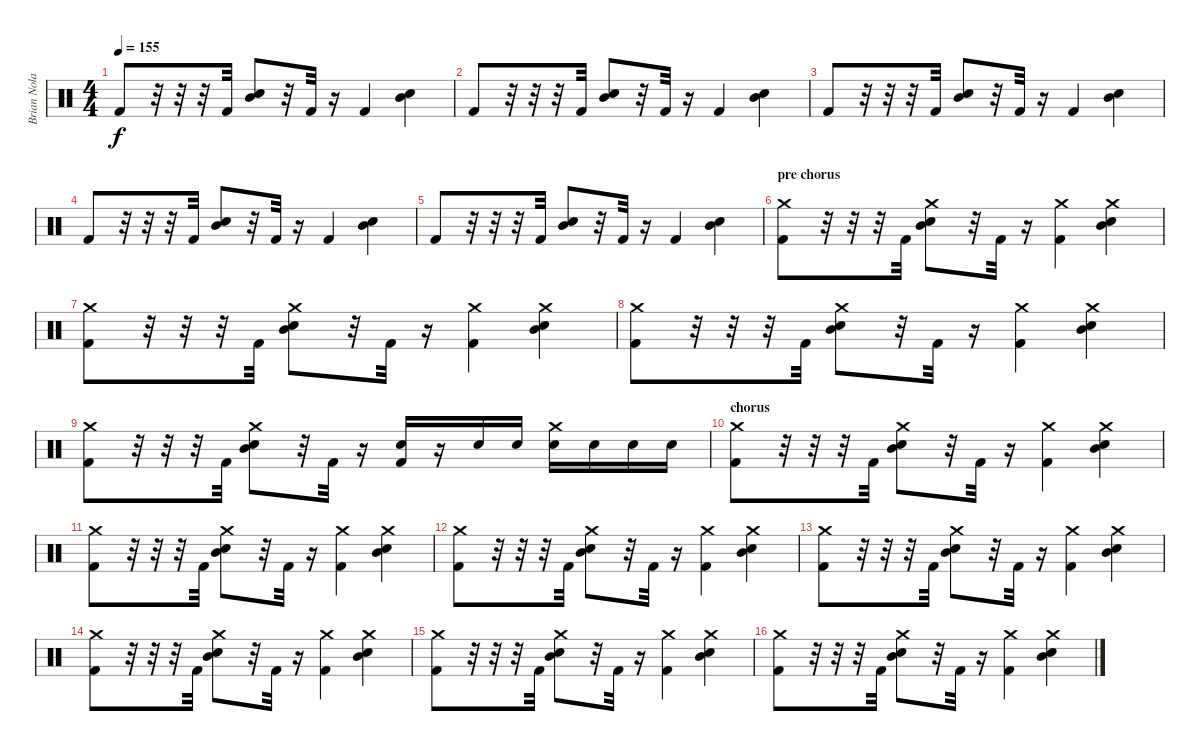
\track ("Brian Nolan" "Brian Nola") {instrument percussion}
\staff {score}
\articulation defaults
\ts (4 4)
\tempo 155
\clef neutral
\ks c "Kick (hit) 2".8{dy f}
r.32 r.32 r.32 "Kick (hit) 2".32 ("Snare (hit) 2" "Mid Tom (hit)").8 r.32 "Kick (hit) 2".32 r.16 "Kick (hit) 2".4 ("Snare (hit) 2" "Mid Tom (hit)").4 |
"Kick (hit) 2".8 r.32 r.32 r.32 "Kick (hit) 2".32 ("Snare (hit) 2" "Mid Tom (hit)").8 r.32 "Kick (hit) 2".32 r.16 "Kick (hit) 2".4 ("Snare (hit) 2" "Mid Tom (hit)").4 |
"Kick (hit) 2".8 r.32 r.32 r.32 "Kick (hit) 2".32 ("Snare (hit) 2" "Mid Tom (hit)").8 r.32 "Kick (hit) 2".32 r.16 "Kick (hit) 2".4 ("Snare (hit) 2" "Mid Tom (hit)").4 |
"Kick (hit) 2".8 r.32 r.32 r.32 "Kick (hit) 2".32 ("Snare (hit) 2" "Mid Tom (hit)").8 r.32 "Kick (hit) 2".32 r.16 "Kick (hit) 2".4 ("Snare (hit) 2" "Mid Tom (hit)").4 |
"Kick (hit) 2".8 r.32 r.32 r.32 "Kick (hit) 2".32 ("Snare (hit) 2" "Mid Tom (hit)").8 r.32 "Kick (hit) 2".32 r.16 "Kick (hit) 2".4 ("Snare (hit) 2" "Mid Tom (hit)").4 |
\section ("" "pre chorus")
("Crash medium (hit)" "Kick (hit) 2").8 r.32 r.32 r.32 "Kick (hit) 2".32 ("Snare (hit) 2" "Mid Tom (hit)" "Crash medium (hit)").8 r.32 "Kick (hit) 2".32 r.16 ("Crash medium (hit)" "Kick (hit) 2").4 ("Snare (hit) 2" "Mid Tom (hit)" "Crash medium (hit)").4 |
("Crash medium (hit)" "Kick (hit) 2").8 r.32 r.32 r.32 "Kick (hit) 2".32 ("Snare (hit) 2" "Mid Tom (hit)" "Crash medium (hit)").8 r.32 "Kick (hit) 2".32 r.16 ("Crash medium (hit)" "Kick (hit) 2").4 ("Snare (hit) 2" "Mid Tom (hit)" "Crash medium (hit)").4 |
("Crash medium (hit)" "Kick (hit) 2").8 r.32 r.32 r.32 "Kick (hit) 2".32 ("Snare (hit) 2" "Mid Tom (hit)" "Crash medium (hit)").8 r.32 "Kick (hit) 2".32 r.16 ("Crash medium (hit)" "Kick (hit) 2").4 ("Snare (hit) 2" "Mid Tom (hit)" "Crash medium (hit)").4 |
("Crash medium (hit)" "Kick (hit) 2").8 r.32 r.32 r.32 "Kick (hit) 2".32 ("Snare (hit) 2" "Mid Tom (hit)" "Crash medium (hit)").8 r.32 "Kick (hit) 2".32 r.16 ("Snare (hit) 2" "Kick (hit) 2").16 r.16 "Snare (hit) 2".16 "Snare (hit) 2".16 ("Snare (hit) 2" "Crash medium (hit)").16 "Snare (hit) 2".16 "Snare (hit) 2".16 "Snare (hit) 2".16 |
\section ("" "chorus")
("Crash medium (hit)" "Kick (hit) 2").8 r.32 r.32 r.32 "Kick (hit) 2".32 ("Snare (hit) 2" "Mid Tom (hit)" "Crash medium (hit)").8 r.32 "Kick (hit) 2".32 r.16 ("Crash medium (hit)" "Kick (hit) 2").4 ("Snare (hit) 2" "Mid Tom (hit)" "Crash medium (hit)").4 |
("Crash medium (hit)" "Kick (hit) 2").8 r.32 r.32 r.32 "Kick (hit) 2".32 ("Snare (hit) 2" "Mid Tom (hit)" "Crash medium (hit)").8 r.32 "Kick (hit) 2".32 r.16 ("Crash medium (hit)" "Kick (hit) 2").4 ("Snare (hit) 2" "Mid Tom (hit)" "Crash medium (hit)").4 |
("Crash medium (hit)" "Kick (hit) 2").8 r.32 r.32 r.32 "Kick (hit) 2".32 ("Snare (hit) 2" "Mid Tom (hit)" "Crash medium (hit)").8 r.32 "Kick (hit) 2".32 r.16 ("Crash medium (hit)" "Kick (hit) 2").4 ("Snare (hit) 2" "Mid Tom (hit)" "Crash medium (hit)").4 |
("Crash medium (hit)" "Kick (hit) 2").8 r.32 r.32 r.32 "Kick (hit) 2".32 ("Snare (hit) 2" "Mid Tom (hit)" "Crash medium (hit)").8 r.32 "Kick (hit) 2".32 r.16 ("Crash medium (hit)" "Kick (hit) 2").4 ("Snare (hit) 2" "Mid Tom (hit)" "Crash medium (hit)").4 |
("Crash medium (hit)" "Kick (hit) 2").8 r.32 r.32 r.32 "Kick (hit) 2".32 ("Snare (hit) 2" "Mid Tom (hit)" "Crash medium (hit)").8 r.32 "Kick (hit) 2".32 r.16 ("Crash medium (hit)" "Kick (hit) 2").4 ("Snare (hit) 2" "Mid Tom (hit)" "Crash medium (hit)").4 |
("Crash medium (hit)" "Kick (hit) 2").8 r.32 r.32 r.32 "Kick (hit) 2".32 ("Snare (hit) 2" "Mid Tom (hit)" "Crash medium (hit)").8 r.32 "Kick (hit) 2".32 r.16 ("Crash medium (hit)" "Kick (hit) 2").4 ("Snare (hit) 2" "Mid Tom (hit)" "Crash medium (hit)").4 |
("Crash medium (hit)" "Kick (hit) 2").8 r.32 r.32 r.32 "Kick (hit) 2".32 ("Snare (hit) 2" "Mid Tom (hit)" "Crash medium (hit)").8 r.32 "Kick (hit) 2".32 r.16 ("Crash medium (hit)" "Kick (hit) 2").4 ("Snare (hit) 2" "Mid Tom (hit)" "Crash medium (hit)").4
